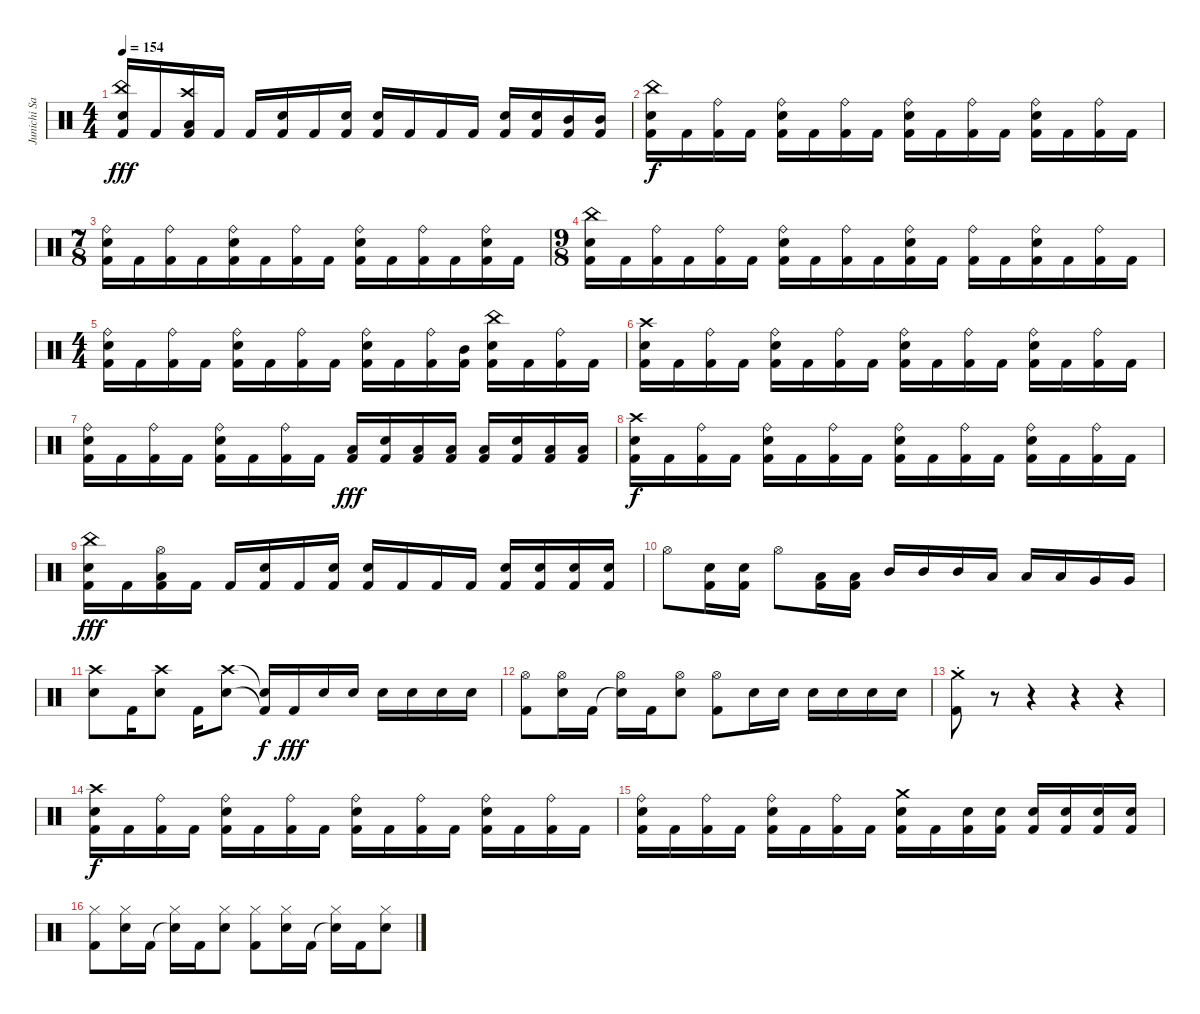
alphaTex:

\track ("Junichi Sato" "Junichi Sa") {instrument percussion}
\staff {score}
\articulation defaults
\ts (4 4)
\tempo 154
\clef neutral
\ks c
("Kick (hit) 2" "China (hit)" "Electric Snare (hit)").16{dy fff} "Kick (hit) 2".16 ("Kick (hit) 2" "Crash high (hit)" "Low Tom (hit)").16 "Kick (hit) 2".16 "Kick (hit) 2".16 ("Kick (hit) 2" "Electric Snare (hit)").16 "Kick (hit) 2".16 ("Kick (hit) 2" "Electric Snare (hit)").16 ("Kick (hit) 2" "Electric Snare (hit)").16 "Kick (hit) 2".16 "Kick (hit) 2".16 "Kick (hit) 2".16 ("Kick (hit) 2" "Electric Snare (hit)").16 ("Kick (hit) 2" "Electric Snare (hit)").16 ("Kick (hit) 2" "Mid Tom (hit)").16 ("Kick (hit) 2" "Mid Tom (hit)").16 |
("Kick (hit) 2" "Electric Snare (hit)" "China (hit)").16{dy f} "Kick (hit) 2".16 ("Kick (hit) 2" "Ride (bell)").16 "Kick (hit) 2".16 ("Kick (hit) 2" "Electric Snare (hit)" "Ride (bell)").16 "Kick (hit) 2".16 ("Kick (hit) 2" "Ride (bell)").16 "Kick (hit) 2".16 ("Kick (hit) 2" "Electric Snare (hit)" "Ride (bell)").16 "Kick (hit) 2".16 ("Kick (hit) 2" "Ride (bell)").16 "Kick (hit) 2".16 ("Kick (hit) 2" "Electric Snare (hit)" "Ride (bell)").16 "Kick (hit) 2".16 ("Kick (hit) 2" "Ride (bell)").16 "Kick (hit) 2".16 |
\ts (7 8)
("Kick (hit) 2" "Ride (bell)" "Electric Snare (hit)").16 "Kick (hit) 2".16 ("Kick (hit) 2" "Ride (bell)").16 "Kick (hit) 2".16 ("Kick (hit) 2" "Ride (bell)" "Electric Snare (hit)").16 "Kick (hit) 2".16 ("Kick (hit) 2" "Ride (bell)").16 "Kick (hit) 2".16 ("Kick (hit) 2" "Ride (bell)" "Electric Snare (hit)").16 "Kick (hit) 2".16 ("Kick (hit) 2" "Ride (bell)").16 "Kick (hit) 2".16 ("Kick (hit) 2" "Ride (bell)" "Electric Snare (hit)").16 "Kick (hit) 2".16 |
\ts (9 8)
("Kick (hit) 2" "Electric Snare (hit)" "China (hit)").16 "Kick (hit) 2".16 ("Kick (hit) 2" "Ride (bell)").16 "Kick (hit) 2".16 ("Kick (hit) 2" "Ride (bell)").16 "Kick (hit) 2".16 ("Kick (hit) 2" "Electric Snare (hit)" "Ride (bell)").16 "Kick (hit) 2".16 ("Kick (hit) 2" "Ride (bell)").16 "Kick (hit) 2".16 ("Kick (hit) 2" "Electric Snare (hit)" "Ride (bell)").16 "Kick (hit) 2".16 ("Kick (hit) 2" "Ride (bell)").16 "Kick (hit) 2".16 ("Kick (hit) 2" "Electric Snare (hit)" "Ride (bell)").16 "Kick (hit) 2".16 ("Kick (hit) 2" "Ride (bell)").16 "Kick (hit) 2".16 |
\ts (4 4)
("Kick (hit) 2" "Electric Snare (hit)" "Ride (bell)").16 "Kick (hit) 2".16 ("Kick (hit) 2" "Ride (bell)").16 "Kick (hit) 2".16 ("Kick (hit) 2" "Electric Snare (hit)" "Ride (bell)").16 "Kick (hit) 2".16 ("Kick (hit) 2" "Ride (bell)").16 "Kick (hit) 2".16 ("Kick (hit) 2" "Electric Snare (hit)" "Ride (bell)").16 "Kick (hit) 2".16 ("Kick (hit) 2" "Ride (bell)").16 ("Kick (hit) 2" "Mid Tom (hit)").16 ("Kick (hit) 2" "Electric Snare (hit)" "China (hit)").16 "Kick (hit) 2".16 ("Kick (hit) 2" "Ride (bell)").16 "Kick (hit) 2".16 |
("Kick (hit) 2" "Electric Snare (hit)" "Crash high (hit)").16 "Kick (hit) 2".16 ("Kick (hit) 2" "Ride (bell)").16 "Kick (hit) 2".16 ("Kick (hit) 2" "Electric Snare (hit)" "Ride (bell)").16 "Kick (hit) 2".16 ("Kick (hit) 2" "Ride (bell)").16 "Kick (hit) 2".16 ("Kick (hit) 2" "Electric Snare (hit)" "Ride (bell)").16 "Kick (hit) 2".16 ("Kick (hit) 2" "Ride (bell)").16 "Kick (hit) 2".16 ("Kick (hit) 2" "Electric Snare (hit)" "Ride (bell)").16 "Kick (hit) 2".16 ("Kick (hit) 2" "Ride (bell)").16 "Kick (hit) 2".16 |
("Kick (hit) 2" "Electric Snare (hit)" "Ride (bell)").16 "Kick (hit) 2".16 ("Kick (hit) 2" "Ride (bell)").16 "Kick (hit) 2".16 ("Kick (hit) 2" "Electric Snare (hit)" "Ride (bell)").16 "Kick (hit) 2".16 ("Kick (hit) 2" "Ride (bell)").16 "Kick (hit) 2".16 ("Kick (hit) 2" "Low Tom (hit)").16{dy fff} ("Kick (hit) 2" "Electric Snare (hit)").16 ("Kick (hit) 2" "Low Tom (hit)").16 ("Kick (hit) 2" "Low Tom (hit)").16 ("Kick (hit) 2" "Low Tom (hit)").16 ("Kick (hit) 2" "Electric Snare (hit)").16 ("Kick (hit) 2" "Low Tom (hit)").16 ("Kick (hit) 2" "Low Tom (hit)").16 |
("Kick (hit) 2" "Electric Snare (hit)" "Crash high (hit)").16{dy f} "Kick (hit) 2".16 ("Kick (hit) 2" "Ride (bell)").16 "Kick (hit) 2".16 ("Kick (hit) 2" "Electric Snare (hit)" "Ride (bell)").16 "Kick (hit) 2".16 ("Kick (hit) 2" "Ride (bell)").16 "Kick (hit) 2".16 ("Kick (hit) 2" "Electric Snare (hit)" "Ride (bell)").16 "Kick (hit) 2".16 ("Kick (hit) 2" "Ride (bell)").16 "Kick (hit) 2".16 ("Kick (hit) 2" "Electric Snare (hit)" "Ride (bell)").16 "Kick (hit) 2".16 ("Kick (hit) 2" "Ride (bell)").16 "Kick (hit) 2".16 |
("Kick (hit) 2" "China (hit)" "Electric Snare (hit)").16{dy fff} "Kick (hit) 2".16 ("Kick (hit) 2" "Hi-Hat (open)" "Low Tom (hit)").16 "Kick (hit) 2".16 "Kick (hit) 2".16 ("Kick (hit) 2" "Electric Snare (hit)").16 "Kick (hit) 2".16 ("Kick (hit) 2" "Electric Snare (hit)").16 ("Kick (hit) 2" "Electric Snare (hit)").16 "Kick (hit) 2".16 "Kick (hit) 2".16 "Kick (hit) 2".16 ("Kick (hit) 2" "Electric Snare (hit)").16 ("Kick (hit) 2" "Electric Snare (hit)").16 ("Kick (hit) 2" "Electric Snare (hit)").16 ("Kick (hit) 2" "Electric Snare (hit)").16 |
"Hi-Hat (open)".8 ("Electric Snare (hit)" "Kick (hit) 2").16 ("Electric Snare (hit)" "Kick (hit) 2").16 "Hi-Hat (open)".8 ("Low Tom (hit)" "Kick (hit) 2").16 ("Low Tom (hit)" "Kick (hit) 2").16 "Mid Tom (hit)".16 "Mid Tom (hit)".16 "Mid Tom (hit)".16 "Low Tom (hit)".16 "Low Tom (hit)".16 "Low Tom (hit)".16 "Very Low Tom (hit)".16 "Very Low Tom (hit)".16 |
("Electric Snare (hit)" "Crash high (hit)").8 "Kick (hit) 2".16 ("Electric Snare (hit)" "Crash high (hit)").8 "Kick (hit) 2".16 ("Electric Snare (hit)" "Crash high (hit)").8 ("Kick (hit) 2"{t} "Snare (hit)"{t}).16{dy f} "Kick (hit) 2".16{dy fff} "Electric Snare (hit)".16 "Electric Snare (hit)".16 "Electric Snare (hit)".16 "Electric Snare (hit)".16 "Electric Snare (hit)".16 "Electric Snare (hit)".16 |
("Kick (hit) 2" "Hi-Hat (open)").8 ("Electric Snare (hit)" "Hi-Hat (open)").16 "Kick (hit) 2".16 ("Snare (hit)"{t} "Hi-Hat (open)").16 "Kick (hit) 2".16 ("Electric Snare (hit)" "Hi-Hat (open)").8 ("Kick (hit) 2" "Hi-Hat (open)").8 "Electric Snare (hit)".16 "Electric Snare (hit)".16 "Electric Snare (hit)".16 "Electric Snare (hit)".16 "Electric Snare (hit)".16 "Electric Snare (hit)".16 |
("Crash medium (hit)"{st} "Kick (hit) 2").8 r.8 r.4 r.4 r.4 |
("Kick (hit) 2" "Electric Snare (hit)" "Crash high (hit)").16{dy f} "Kick (hit) 2".16 ("Kick (hit) 2" "Ride (bell)").16 "Kick (hit) 2".16 ("Kick (hit) 2" "Electric Snare (hit)" "Ride (bell)").16 "Kick (hit) 2".16 ("Kick (hit) 2" "Ride (bell)").16 "Kick (hit) 2".16 ("Kick (hit) 2" "Electric Snare (hit)" "Ride (bell)").16 "Kick (hit) 2".16 ("Kick (hit) 2" "Ride (bell)").16 "Kick (hit) 2".16 ("Kick (hit) 2" "Electric Snare (hit)" "Ride (bell)").16 "Kick (hit) 2".16 ("Kick (hit) 2" "Ride (bell)").16 "Kick (hit) 2".16 |
("Kick (hit) 2" "Electric Snare (hit)" "Ride (bell)").16 "Kick (hit) 2".16 ("Kick (hit) 2" "Ride (bell)").16 "Kick (hit) 2".16 ("Kick (hit) 2" "Electric Snare (hit)" "Ride (bell)").16 "Kick (hit) 2".16 ("Kick (hit) 2" "Ride (bell)").16 "Kick (hit) 2".16 ("Kick (hit) 2" "Electric Snare (hit)" "Crash medium (hit)").16 "Kick (hit) 2".16 ("Kick (hit) 2" "Electric Snare (hit)").16 ("Kick (hit) 2" "Electric Snare (hit)").16 ("Kick (hit) 2" "Electric Snare (hit)").16 ("Kick (hit) 2" "Electric Snare (hit)").16 ("Kick (hit) 2" "Electric Snare (hit)").16 ("Kick (hit) 2" "Electric Snare (hit)").16 |
("Kick (hit) 2" "Hi-Hat (closed)").8 ("Electric Snare (hit)" "Hi-Hat (closed)").16 "Kick (hit) 2".16 ("Snare (hit)"{t} "Hi-Hat (closed)").16 "Kick (hit) 2".16 ("Electric Snare (hit)" "Hi-Hat (closed)").8 ("Kick (hit) 2" "Hi-Hat (closed)").8 ("Electric Snare (hit)" "Hi-Hat (closed)").16 "Kick (hit) 2".16 ("Snare (hit)"{t} "Hi-Hat (closed)").16 "Kick (hit) 2".16 ("Electric Snare (hit)" "Hi-Hat (closed)").8
